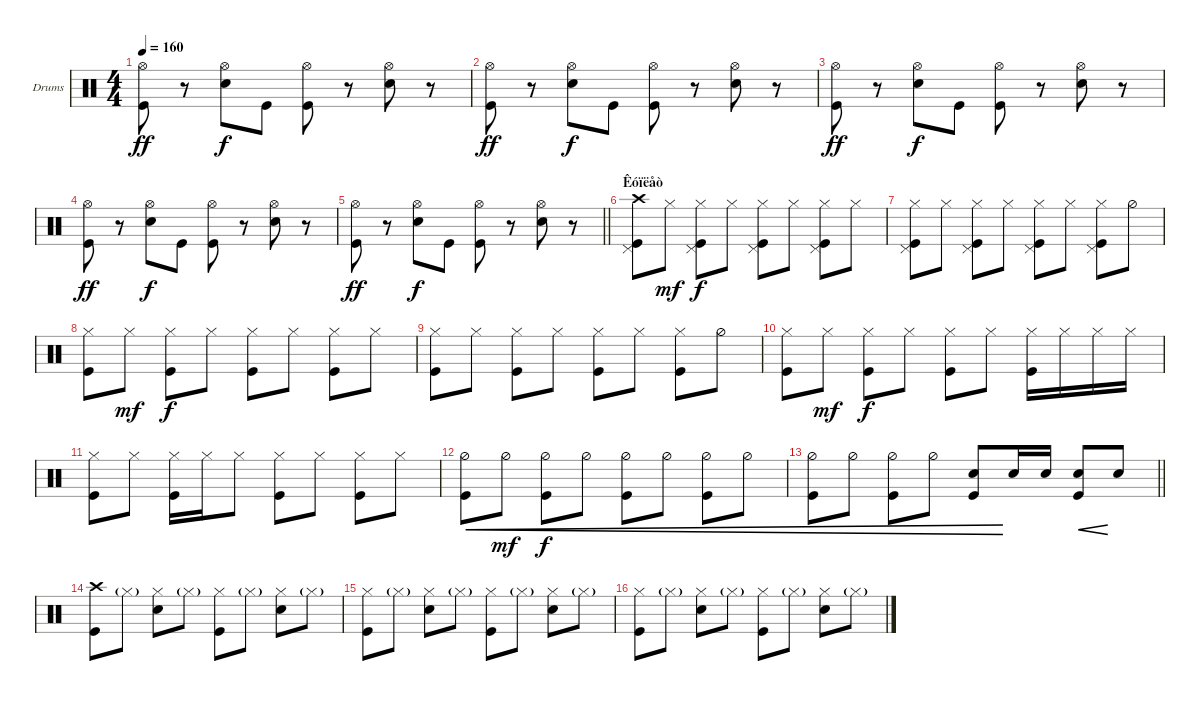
\bracketExtendMode groupsimilarinstruments
\firstSystemTrackNameOrientation horizontal
\otherSystemsTrackNameOrientation horizontal
\track ("Drumkit" "Drums") {instrument percussion}
\staff {score}
\articulation defaults
\ts (4 4)
\tempo 160
\clef neutral
\ks c
("Kick (hit)" "Hi-Hat (open)").8{dy ff} r.8 ("Snare (hit) 2" "Hi-Hat (open)").8{dy f} "Kick (hit)".8 ("Kick (hit)" "Hi-Hat (open)").8 r.8 ("Snare (hit) 2" "Hi-Hat (open)").8 r.8 |
("Kick (hit)" "Hi-Hat (open)").8{dy ff} r.8 ("Snare (hit) 2" "Hi-Hat (open)").8{dy f} "Kick (hit)".8 ("Kick (hit)" "Hi-Hat (open)").8 r.8 ("Snare (hit) 2" "Hi-Hat (open)").8 r.8 |
("Kick (hit)" "Hi-Hat (open)").8{dy ff} r.8 ("Snare (hit) 2" "Hi-Hat (open)").8{dy f} "Kick (hit)".8 ("Kick (hit)" "Hi-Hat (open)").8 r.8 ("Snare (hit) 2" "Hi-Hat (open)").8 r.8 |
("Kick (hit)" "Hi-Hat (open)").8{dy ff} r.8 ("Snare (hit) 2" "Hi-Hat (open)").8{dy f} "Kick (hit)".8 ("Kick (hit)" "Hi-Hat (open)").8 r.8 ("Snare (hit) 2" "Hi-Hat (open)").8 r.8 |
\barLineRight lightlight
("Kick (hit)" "Hi-Hat (open)").8{dy ff} r.8 ("Snare (hit) 2" "Hi-Hat (open)").8{dy f} "Kick (hit)".8 ("Kick (hit)" "Hi-Hat (open)").8 r.8 ("Snare (hit) 2" "Hi-Hat (open)").8 r.8 |
\section ("" "Êóïëåò")
("Crash high (hit)" "Pedal Hi-Hat (hit)" "Kick (hit)").8 "Hi-Hat (closed)".8{dy mf} ("Pedal Hi-Hat (hit)" "Kick (hit)" "Hi-Hat (closed)").8{dy f} "Hi-Hat (closed)".8 ("Pedal Hi-Hat (hit)" "Kick (hit)" "Hi-Hat (closed)").8 "Hi-Hat (closed)".8 ("Pedal Hi-Hat (hit)" "Kick (hit)" "Hi-Hat (closed)").8 "Hi-Hat (closed)".8 |
("Pedal Hi-Hat (hit)" "Kick (hit)" "Hi-Hat (closed)").8 "Hi-Hat (closed)".8 ("Pedal Hi-Hat (hit)" "Kick (hit)" "Hi-Hat (closed)").8 "Hi-Hat (closed)".8 ("Pedal Hi-Hat (hit)" "Kick (hit)" "Hi-Hat (closed)").8 "Hi-Hat (closed)".8 ("Pedal Hi-Hat (hit)" "Kick (hit)" "Hi-Hat (closed)").8 "Hi-Hat (half)".8 |
("Kick (hit)" "Hi-Hat (closed)").8 "Hi-Hat (closed)".8{dy mf} ("Kick (hit)" "Hi-Hat (closed)").8{dy f} "Hi-Hat (closed)".8 ("Kick (hit)" "Hi-Hat (closed)").8 "Hi-Hat (closed)".8 ("Kick (hit)" "Hi-Hat (closed)").8 "Hi-Hat (closed)".8 |
("Kick (hit)" "Hi-Hat (closed)").8 "Hi-Hat (closed)".8 ("Kick (hit)" "Hi-Hat (closed)").8 "Hi-Hat (closed)".8 ("Kick (hit)" "Hi-Hat (closed)").8 "Hi-Hat (closed)".8 ("Kick (hit)" "Hi-Hat (closed)").8 "Hi-Hat (half)".8 |
("Kick (hit)" "Hi-Hat (closed)").8 "Hi-Hat (closed)".8{dy mf} ("Kick (hit)" "Hi-Hat (closed)").8{dy f} "Hi-Hat (closed)".8 ("Kick (hit)" "Hi-Hat (closed)").8 "Hi-Hat (closed)".8 ("Kick (hit)" "Hi-Hat (closed)").16 "Hi-Hat (closed)".16 "Hi-Hat (closed)".16 "Hi-Hat (closed)".16 |
("Kick (hit)" "Hi-Hat (closed)").8 "Hi-Hat (closed)".8 ("Kick (hit)" "Hi-Hat (closed)").16 "Hi-Hat (closed)".16 "Hi-Hat (closed)".8 ("Kick (hit)" "Hi-Hat (closed)").8 "Hi-Hat (closed)".8 ("Kick (hit)" "Hi-Hat (closed)").8 "Hi-Hat (closed)".8 |
("Kick (hit)" "Hi-Hat (half)").8{cre} "Hi-Hat (half)".8{cre dy mf} ("Kick (hit)" "Hi-Hat (half)").8{cre dy f} "Hi-Hat (half)".8{cre} ("Kick (hit)" "Hi-Hat (half)").8{cre} "Hi-Hat (half)".8{cre} ("Kick (hit)" "Hi-Hat (half)").8{cre} "Hi-Hat (half)".8{cre} |
\barLineRight lightlight
("Kick (hit)" "Hi-Hat (half)").8{cre} "Hi-Hat (half)".8{cre} ("Kick (hit)" "Hi-Hat (half)").8{cre} "Hi-Hat (half)".8{cre} ("Kick (hit)" "Snare (hit) 2").8{cre} "Snare (hit) 2".16 "Snare (hit) 2".16 ("Kick (hit)" "Snare (hit) 2").8{cre} "Snare (hit) 2".8 |
\section ("" " ")
("Crash high (hit)" "Kick (hit)").8 "Hi-Hat (closed)"{g}.8 ("Hi-Hat (closed)" "Snare (hit) 2").8 "Hi-Hat (closed)"{g}.8 ("Hi-Hat (closed)" "Kick (hit)").8 "Hi-Hat (closed)"{g}.8 ("Hi-Hat (closed)" "Snare (hit) 2").8 "Hi-Hat (closed)"{g}.8 |
("Kick (hit)" "Hi-Hat (closed)").8 "Hi-Hat (closed)"{g}.8 ("Hi-Hat (closed)" "Snare (hit) 2").8 "Hi-Hat (closed)"{g}.8 ("Hi-Hat (closed)" "Kick (hit)").8 "Hi-Hat (closed)"{g}.8 ("Hi-Hat (closed)" "Snare (hit) 2").8 "Hi-Hat (closed)"{g}.8 |
("Kick (hit)" "Hi-Hat (closed)").8 "Hi-Hat (closed)"{g}.8 ("Hi-Hat (closed)" "Snare (hit) 2").8 "Hi-Hat (closed)"{g}.8 ("Hi-Hat (closed)" "Kick (hit)").8 "Hi-Hat (closed)"{g}.8 ("Hi-Hat (closed)" "Snare (hit) 2").8 "Hi-Hat (closed)"{g}.8
